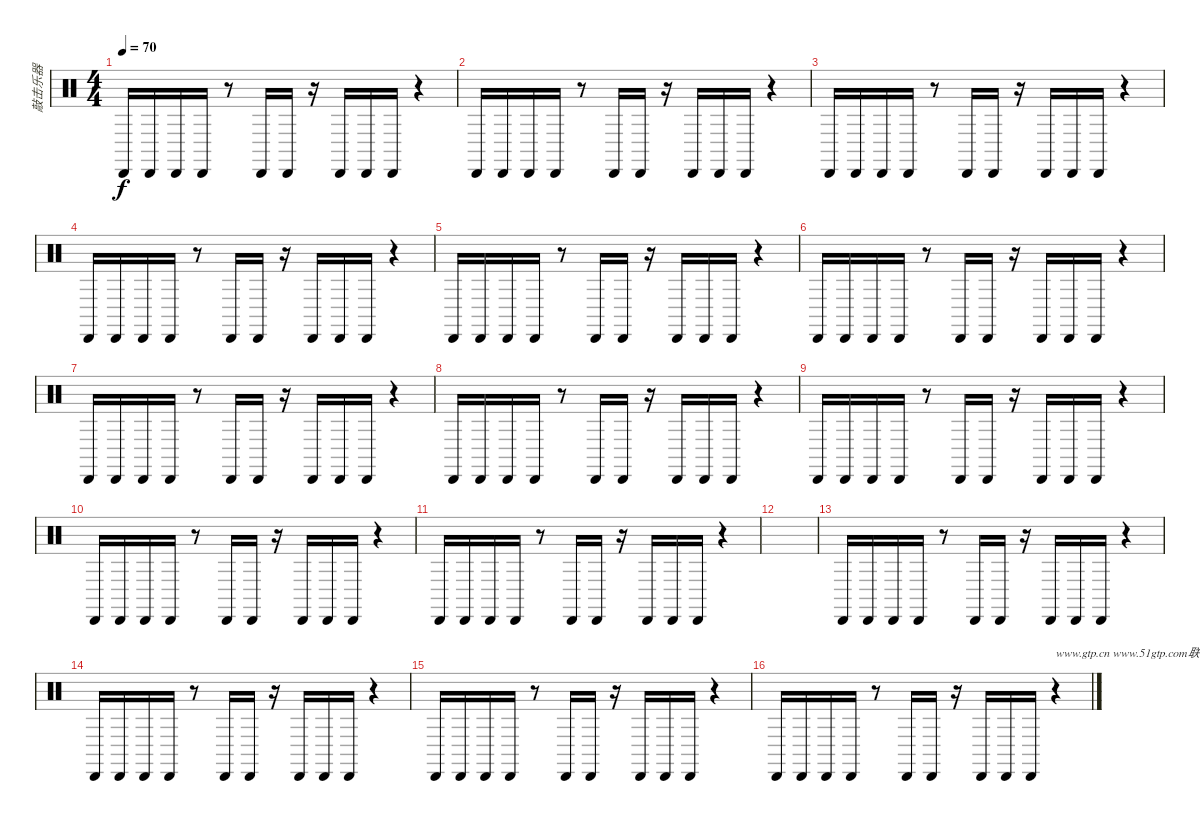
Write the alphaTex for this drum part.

\track ("敲击乐器" "敲击乐器") {instrument percussion}
\staff {score}
\articulation defaults
\ts (4 4)
\tempo 70
\clef neutral
\ks c "Cabasa (hit)".16{dy f} "Cabasa (hit)".16 "Cabasa (hit)".16 "Cabasa (hit)".16
r.8 "Cabasa (hit)".16 "Cabasa (hit)".16 r.16 "Cabasa (hit)".16 "Cabasa (hit)".16 "Cabasa (hit)".16 r.4 |
"Cabasa (hit)".16 "Cabasa (hit)".16 "Cabasa (hit)".16 "Cabasa (hit)".16 r.8 "Cabasa (hit)".16 "Cabasa (hit)".16 r.16 "Cabasa (hit)".16 "Cabasa (hit)".16 "Cabasa (hit)".16 r.4 |
"Cabasa (hit)".16 "Cabasa (hit)".16 "Cabasa (hit)".16 "Cabasa (hit)".16 r.8 "Cabasa (hit)".16 "Cabasa (hit)".16 r.16 "Cabasa (hit)".16 "Cabasa (hit)".16 "Cabasa (hit)".16 r.4 |
"Cabasa (hit)".16 "Cabasa (hit)".16 "Cabasa (hit)".16 "Cabasa (hit)".16 r.8 "Cabasa (hit)".16 "Cabasa (hit)".16 r.16 "Cabasa (hit)".16 "Cabasa (hit)".16 "Cabasa (hit)".16 r.4 |
"Cabasa (hit)".16 "Cabasa (hit)".16 "Cabasa (hit)".16 "Cabasa (hit)".16 r.8 "Cabasa (hit)".16 "Cabasa (hit)".16 r.16 "Cabasa (hit)".16 "Cabasa (hit)".16 "Cabasa (hit)".16 r.4 |
"Cabasa (hit)".16 "Cabasa (hit)".16 "Cabasa (hit)".16 "Cabasa (hit)".16 r.8 "Cabasa (hit)".16 "Cabasa (hit)".16 r.16 "Cabasa (hit)".16 "Cabasa (hit)".16 "Cabasa (hit)".16 r.4 |
"Cabasa (hit)".16 "Cabasa (hit)".16 "Cabasa (hit)".16 "Cabasa (hit)".16 r.8 "Cabasa (hit)".16 "Cabasa (hit)".16 r.16 "Cabasa (hit)".16 "Cabasa (hit)".16 "Cabasa (hit)".16 r.4 |
"Cabasa (hit)".16 "Cabasa (hit)".16 "Cabasa (hit)".16 "Cabasa (hit)".16 r.8 "Cabasa (hit)".16 "Cabasa (hit)".16 r.16 "Cabasa (hit)".16 "Cabasa (hit)".16 "Cabasa (hit)".16 r.4 |
"Cabasa (hit)".16 "Cabasa (hit)".16 "Cabasa (hit)".16 "Cabasa (hit)".16 r.8 "Cabasa (hit)".16 "Cabasa (hit)".16 r.16 "Cabasa (hit)".16 "Cabasa (hit)".16 "Cabasa (hit)".16 r.4 |
"Cabasa (hit)".16 "Cabasa (hit)".16 "Cabasa (hit)".16 "Cabasa (hit)".16 r.8 "Cabasa (hit)".16 "Cabasa (hit)".16 r.16 "Cabasa (hit)".16 "Cabasa (hit)".16 "Cabasa (hit)".16 r.4 |
"Cabasa (hit)".16 "Cabasa (hit)".16 "Cabasa (hit)".16 "Cabasa (hit)".16 r.8 "Cabasa (hit)".16 "Cabasa (hit)".16 r.16 "Cabasa (hit)".16 "Cabasa (hit)".16 "Cabasa (hit)".16 r.4 |
|
"Cabasa (hit)".16 "Cabasa (hit)".16 "Cabasa (hit)".16 "Cabasa (hit)".16 r.8 "Cabasa (hit)".16 "Cabasa (hit)".16 r.16 "Cabasa (hit)".16 "Cabasa (hit)".16 "Cabasa (hit)".16 r.4 |
"Cabasa (hit)".16 "Cabasa (hit)".16 "Cabasa (hit)".16 "Cabasa (hit)".16 r.8 "Cabasa (hit)".16 "Cabasa (hit)".16 r.16 "Cabasa (hit)".16 "Cabasa (hit)".16 "Cabasa (hit)".16 r.4 |
"Cabasa (hit)".16 "Cabasa (hit)".16 "Cabasa (hit)".16 "Cabasa (hit)".16 r.8 "Cabasa (hit)".16 "Cabasa (hit)".16 r.16 "Cabasa (hit)".16 "Cabasa (hit)".16 "Cabasa (hit)".16 r.4 |
"Cabasa (hit)".16 "Cabasa (hit)".16 "Cabasa (hit)".16 "Cabasa (hit)".16 r.8 "Cabasa (hit)".16 "Cabasa (hit)".16 r.16 "Cabasa (hit)".16 "Cabasa (hit)".16 "Cabasa (hit)".16 r.4{txt "www.gtp.cn www.51gtp.com联合为您提供优秀的GTP!"}
